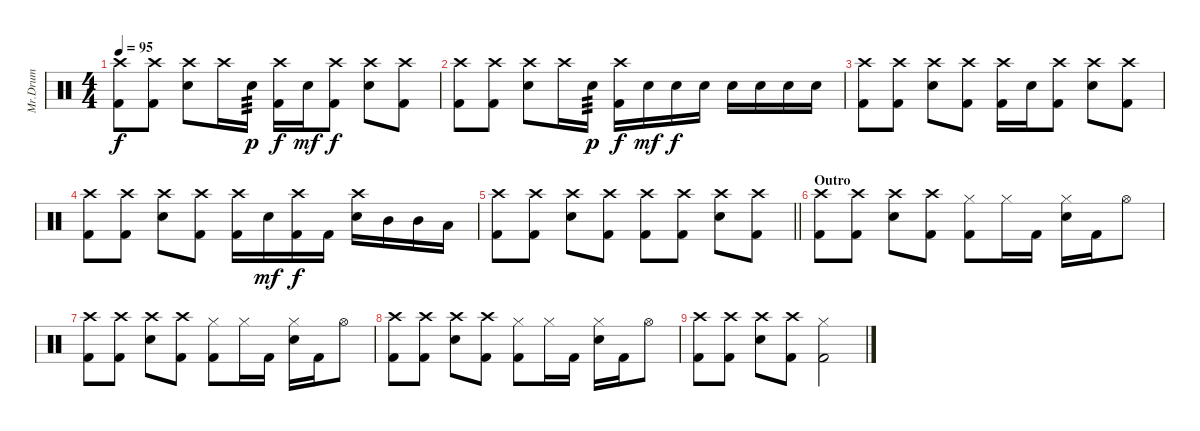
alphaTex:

\track ("Mr.Drum" "Mr.Drum") {instrument percussion}
\staff {score}
\articulation defaults
\ts (4 4)
\tempo 95
\clef neutral
\ks c
("Crash high (hit)" "Kick (hit) 2").8{dy f} ("Crash high (hit)" "Kick (hit) 2").8 ("Crash high (hit)" "Electric Snare (hit)").8 "Crash high (hit)".16 "Electric Snare (hit)".16{tp 3 dy p} ("Crash high (hit)" "Kick (hit) 2").16{dy f} "Electric Snare (hit)".16{dy mf} ("Crash high (hit)" "Kick (hit) 2").8{dy f} ("Crash high (hit)" "Electric Snare (hit)").8 ("Crash high (hit)" "Kick (hit) 2").8 |
("Crash high (hit)" "Kick (hit) 2").8 ("Crash high (hit)" "Kick (hit) 2").8 ("Crash high (hit)" "Electric Snare (hit)").8 "Crash high (hit)".16 "Electric Snare (hit)".16{tp 3 dy p} ("Crash high (hit)" "Kick (hit) 2").16{dy f} "Electric Snare (hit)".16{dy mf} "Electric Snare (hit)".16{dy f} "Electric Snare (hit)".16 "Electric Snare (hit)".16 "Electric Snare (hit)".16 "Electric Snare (hit)".16 "Electric Snare (hit)".16 |
("Crash high (hit)" "Kick (hit) 2").8 ("Crash high (hit)" "Kick (hit) 2").8 ("Crash high (hit)" "Electric Snare (hit)").8 ("Crash high (hit)" "Kick (hit) 2").8 ("Crash high (hit)" "Kick (hit) 2").16 "Electric Snare (hit)".16 ("Crash high (hit)" "Kick (hit) 2").8 ("Crash high (hit)" "Electric Snare (hit)").8 ("Crash high (hit)" "Kick (hit) 2").8 |
("Crash high (hit)" "Kick (hit) 2").8 ("Crash high (hit)" "Kick (hit) 2").8 ("Crash high (hit)" "Electric Snare (hit)").8 ("Crash high (hit)" "Kick (hit) 2").8 ("Crash high (hit)" "Kick (hit) 2").16 "Electric Snare (hit)".16{dy mf} ("Crash high (hit)" "Kick (hit) 2").16{dy f} "Kick (hit) 2".16 ("Crash high (hit)" "Electric Snare (hit)").16 "Mid Tom (hit)".16 "Mid Tom (hit)".16 "Low Tom (hit)".16 |
\barLineRight lightlight
("Crash high (hit)" "Kick (hit) 2").8 ("Crash high (hit)" "Kick (hit) 2").8 ("Crash high (hit)" "Electric Snare (hit)").8 ("Crash high (hit)" "Kick (hit) 2").8 ("Crash high (hit)" "Kick (hit) 2").8 ("Crash high (hit)" "Kick (hit) 2").8 ("Crash high (hit)" "Electric Snare (hit)").8 ("Crash high (hit)" "Kick (hit) 2").8 |
\section ("" "Outro")
("Crash high (hit)" "Kick (hit) 2").8 ("Crash high (hit)" "Kick (hit) 2").8 ("Crash high (hit)" "Electric Snare (hit)").8 ("Crash high (hit)" "Kick (hit) 2").8 ("Hi-Hat (closed)" "Kick (hit) 2").8 "Hi-Hat (closed)".16 "Kick (hit) 2".16 ("Hi-Hat (closed)" "Electric Snare (hit)").16 "Kick (hit) 2".16 "Hi-Hat (open)".8 |
("Crash high (hit)" "Kick (hit) 2").8 ("Crash high (hit)" "Kick (hit) 2").8 ("Crash high (hit)" "Electric Snare (hit)").8 ("Crash high (hit)" "Kick (hit) 2").8 ("Hi-Hat (closed)" "Kick (hit) 2").8 "Hi-Hat (closed)".16 "Kick (hit) 2".16 ("Hi-Hat (closed)" "Electric Snare (hit)").16 "Kick (hit) 2".16 "Hi-Hat (open)".8 |
("Crash high (hit)" "Kick (hit) 2").8 ("Crash high (hit)" "Kick (hit) 2").8 ("Crash high (hit)" "Electric Snare (hit)").8 ("Crash high (hit)" "Kick (hit) 2").8 ("Hi-Hat (closed)" "Kick (hit) 2").8 "Hi-Hat (closed)".16 "Kick (hit) 2".16 ("Hi-Hat (closed)" "Electric Snare (hit)").16 "Kick (hit) 2".16 "Hi-Hat (open)".8 |
("Crash high (hit)" "Kick (hit) 2").8 ("Crash high (hit)" "Kick (hit) 2").8 ("Crash high (hit)" "Electric Snare (hit)").8 ("Crash high (hit)" "Kick (hit) 2").8 ("Hi-Hat (closed)" "Kick (hit) 2").2
